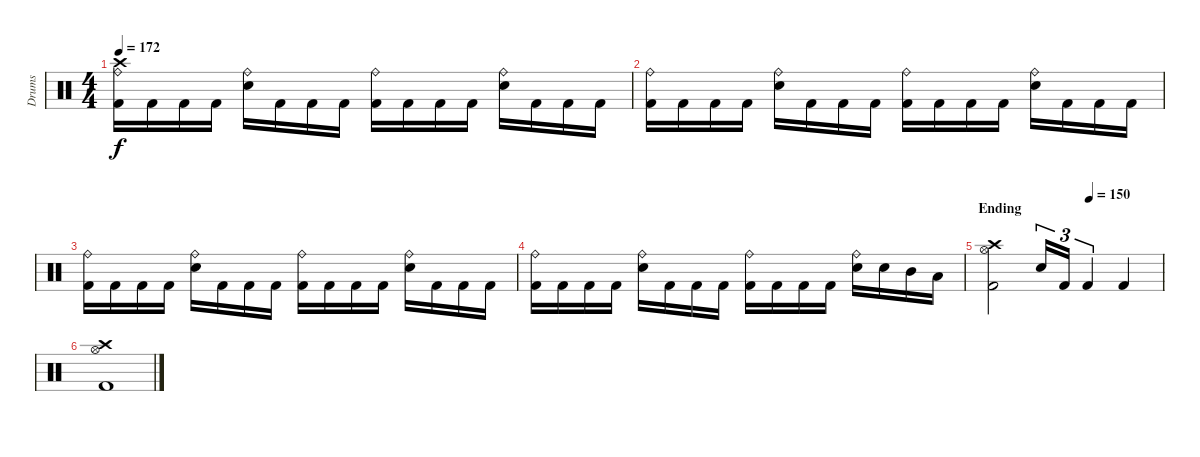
\track ("Drums" "Drums") {instrument percussion}
\staff {score}
\articulation defaults
\ts (4 4)
\tempo 172
\clef neutral
\ks c
("Crash high (hit)" "Ride (bell)" "Kick (hit) 2").16{dy f} "Kick (hit) 2".16 "Kick (hit) 2".16 "Kick (hit) 2".16 ("Ride (bell)" "Electric Snare (hit)").16 "Kick (hit) 2".16 "Kick (hit) 2".16 "Kick (hit) 2".16 ("Ride (bell)" "Kick (hit) 2").16 "Kick (hit) 2".16 "Kick (hit) 2".16 "Kick (hit) 2".16 ("Ride (bell)" "Electric Snare (hit)").16 "Kick (hit) 2".16 "Kick (hit) 2".16 "Kick (hit) 2".16 |
("Ride (bell)" "Kick (hit) 2").16 "Kick (hit) 2".16 "Kick (hit) 2".16 "Kick (hit) 2".16 ("Ride (bell)" "Electric Snare (hit)").16 "Kick (hit) 2".16 "Kick (hit) 2".16 "Kick (hit) 2".16 ("Ride (bell)" "Kick (hit) 2").16 "Kick (hit) 2".16 "Kick (hit) 2".16 "Kick (hit) 2".16 ("Ride (bell)" "Electric Snare (hit)").16 "Kick (hit) 2".16 "Kick (hit) 2".16 "Kick (hit) 2".16 |
("Ride (bell)" "Kick (hit) 2").16 "Kick (hit) 2".16 "Kick (hit) 2".16 "Kick (hit) 2".16 ("Ride (bell)" "Electric Snare (hit)").16 "Kick (hit) 2".16 "Kick (hit) 2".16 "Kick (hit) 2".16 ("Ride (bell)" "Kick (hit) 2").16 "Kick (hit) 2".16 "Kick (hit) 2".16 "Kick (hit) 2".16 ("Ride (bell)" "Electric Snare (hit)").16 "Kick (hit) 2".16 "Kick (hit) 2".16 "Kick (hit) 2".16 |
("Ride (bell)" "Kick (hit) 2").16 "Kick (hit) 2".16 "Kick (hit) 2".16 "Kick (hit) 2".16 ("Ride (bell)" "Electric Snare (hit)").16 "Kick (hit) 2".16 "Kick (hit) 2".16 "Kick (hit) 2".16 ("Ride (bell)" "Kick (hit) 2").16 "Kick (hit) 2".16 "Kick (hit) 2".16 "Kick (hit) 2".16 ("Ride (bell)" "Electric Snare (hit)").16 "Electric Snare (hit)".16 "Mid Tom (hit)".16 "Low Tom (hit)".16 |
\section ("" "Ending")
\tempo (150 0.5833333333333334)
("Crash high (hit)" "Hi-Hat (open)" "Kick (hit) 2").2 "Electric Snare (hit)".16{tu (3 2)} "Kick (hit) 2".16{tu (3 2)} "Kick (hit) 2".4{tu (3 2)} "Kick (hit) 2".4 |
("Crash high (hit)" "Hi-Hat (open)" "Kick (hit) 2").1
